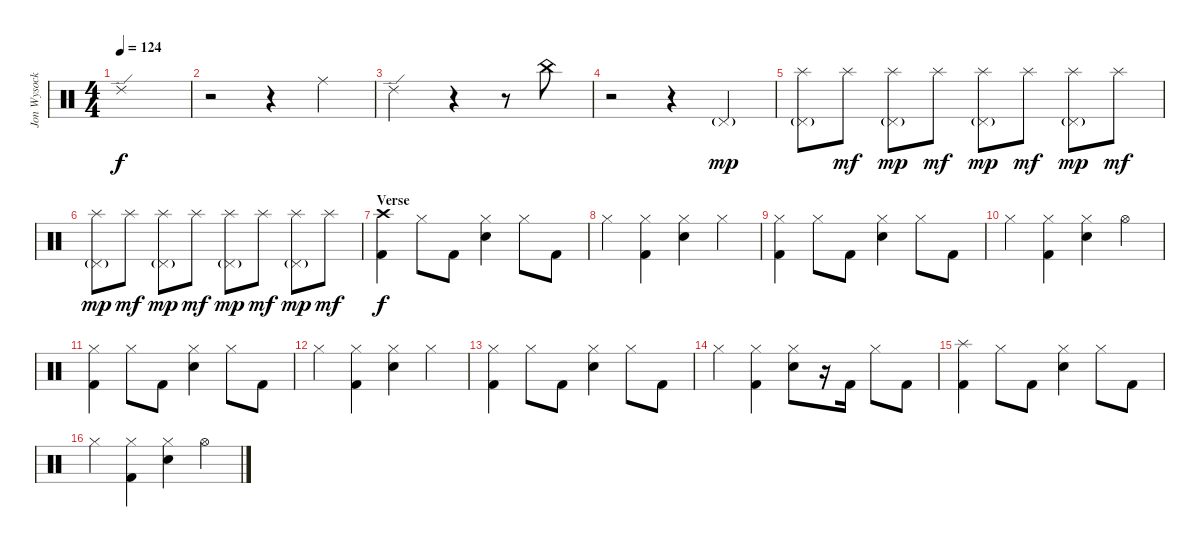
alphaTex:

\track ("Jon Wysocki - Drums" "Jon Wysock") {instrument percussion}
\staff {score}
\articulation defaults
\ts (4 4)
\tempo 124
\clef neutral
\ks c "Ride (edge) 2".1{dy f}
|
r.2 r.4 "Ride (middle)".4 |
"Ride (edge) 2".2 r.4 r.8 "China (hit)".8 |
r.2 r.4 "Pedal Hi-Hat (hit)"{g}.4{dy mp} |
("Splash (hit)" "Pedal Hi-Hat (hit)"{g}).8 "Splash (hit)".8{dy mf} ("Splash (hit)" "Pedal Hi-Hat (hit)"{g}).8{dy mp} "Splash (hit)".8{dy mf} ("Splash (hit)" "Pedal Hi-Hat (hit)"{g}).8{dy mp} "Splash (hit)".8{dy mf} ("Splash (hit)" "Pedal Hi-Hat (hit)"{g}).8{dy mp} "Splash (hit)".8{dy mf} |
("Splash (hit)" "Pedal Hi-Hat (hit)"{g}).8{dy mp} "Splash (hit)".8{dy mf} ("Splash (hit)" "Pedal Hi-Hat (hit)"{g}).8{dy mp} "Splash (hit)".8{dy mf} ("Splash (hit)" "Pedal Hi-Hat (hit)"{g}).8{dy mp} "Splash (hit)".8{dy mf} ("Splash (hit)" "Pedal Hi-Hat (hit)"{g}).8{dy mp} "Splash (hit)".8{dy mf} |
\section ("" "Verse")
("Crash high (hit)" "Kick (hit) 2").4{dy f} "Hi-Hat (closed)".8 "Kick (hit) 2".8 ("Hi-Hat (closed)" "Electric Snare (hit)").4 "Hi-Hat (closed)".8 "Kick (hit) 2".8 |
"Hi-Hat (closed)".4 ("Hi-Hat (closed)" "Kick (hit) 2").4 ("Hi-Hat (closed)" "Electric Snare (hit)").4 "Hi-Hat (closed)".4 |
("Hi-Hat (closed)" "Kick (hit) 2").4 "Hi-Hat (closed)".8 "Kick (hit) 2".8 ("Hi-Hat (closed)" "Electric Snare (hit)").4 "Hi-Hat (closed)".8 "Kick (hit) 2".8 |
"Hi-Hat (closed)".4 ("Hi-Hat (closed)" "Kick (hit) 2").4 ("Hi-Hat (closed)" "Electric Snare (hit)").4 "Hi-Hat (open)".4 |
("Hi-Hat (closed)" "Kick (hit) 2").4 "Hi-Hat (closed)".8 "Kick (hit) 2".8 ("Hi-Hat (closed)" "Electric Snare (hit)").4 "Hi-Hat (closed)".8 "Kick (hit) 2".8 |
"Hi-Hat (closed)".4 ("Hi-Hat (closed)" "Kick (hit) 2").4 ("Hi-Hat (closed)" "Electric Snare (hit)").4 "Hi-Hat (closed)".4 |
("Hi-Hat (closed)" "Kick (hit) 2").4 "Hi-Hat (closed)".8 "Kick (hit) 2".8 ("Hi-Hat (closed)" "Electric Snare (hit)").4 "Hi-Hat (closed)".8 "Kick (hit) 2".8 |
"Hi-Hat (closed)".4 ("Hi-Hat (closed)" "Kick (hit) 2").4 ("Hi-Hat (closed)" "Electric Snare (hit)").8 r.16 "Kick (hit) 2".16 "Hi-Hat (closed)".8 "Kick (hit) 2".8 |
("Splash (hit)" "Kick (hit) 2").4 "Hi-Hat (closed)".8 "Kick (hit) 2".8 ("Hi-Hat (closed)" "Electric Snare (hit)").4 "Hi-Hat (closed)".8 "Kick (hit) 2".8 |
"Hi-Hat (closed)".4 ("Hi-Hat (closed)" "Kick (hit) 2").4 ("Hi-Hat (closed)" "Electric Snare (hit)").4 "Hi-Hat (open)".4
